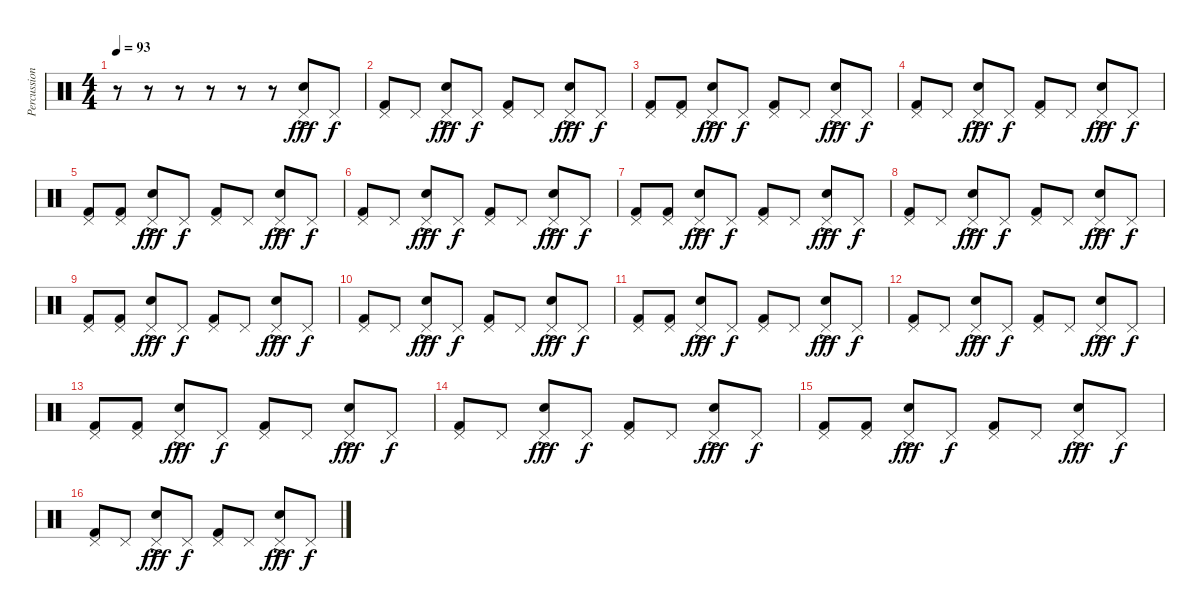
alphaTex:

\track ("Percussion" "Percussion") {instrument percussion}
\staff {score}
\articulation defaults
\ts (4 4)
\tempo 93
\clef neutral
\ks c
r.8{dy fff} r.8 r.8 r.8 r.8 r.8 ("Pedal Hi-Hat (hit)" "Electric Snare (hit)"{ac}).8 "Pedal Hi-Hat (hit)".8{dy f} |
("Pedal Hi-Hat (hit)" "Kick (hit) 2").8 "Pedal Hi-Hat (hit)".8 ("Pedal Hi-Hat (hit)" "Electric Snare (hit)"{ac}).8{dy fff} "Pedal Hi-Hat (hit)".8{dy f} ("Pedal Hi-Hat (hit)" "Kick (hit) 2").8 "Pedal Hi-Hat (hit)".8 ("Pedal Hi-Hat (hit)" "Electric Snare (hit)"{ac}).8{dy fff} "Pedal Hi-Hat (hit)".8{dy f} |
("Pedal Hi-Hat (hit)" "Kick (hit) 2").8 ("Pedal Hi-Hat (hit)" "Kick (hit) 2").8 ("Pedal Hi-Hat (hit)" "Electric Snare (hit)"{ac}).8{dy fff} "Pedal Hi-Hat (hit)".8{dy f} ("Pedal Hi-Hat (hit)" "Kick (hit) 2").8 "Pedal Hi-Hat (hit)".8 ("Pedal Hi-Hat (hit)" "Electric Snare (hit)"{ac}).8{dy fff} "Pedal Hi-Hat (hit)".8{dy f} |
("Pedal Hi-Hat (hit)" "Kick (hit) 2").8 "Pedal Hi-Hat (hit)".8 ("Pedal Hi-Hat (hit)" "Electric Snare (hit)"{ac}).8{dy fff} "Pedal Hi-Hat (hit)".8{dy f} ("Pedal Hi-Hat (hit)" "Kick (hit) 2").8 "Pedal Hi-Hat (hit)".8 ("Pedal Hi-Hat (hit)" "Electric Snare (hit)"{ac}).8{dy fff} "Pedal Hi-Hat (hit)".8{dy f} |
("Pedal Hi-Hat (hit)" "Kick (hit) 2").8 ("Pedal Hi-Hat (hit)" "Kick (hit) 2").8 ("Pedal Hi-Hat (hit)" "Electric Snare (hit)"{ac}).8{dy fff} "Pedal Hi-Hat (hit)".8{dy f} ("Pedal Hi-Hat (hit)" "Kick (hit) 2").8 "Pedal Hi-Hat (hit)".8 ("Pedal Hi-Hat (hit)" "Electric Snare (hit)"{ac}).8{dy fff} "Pedal Hi-Hat (hit)".8{dy f} |
("Pedal Hi-Hat (hit)" "Kick (hit) 2").8 "Pedal Hi-Hat (hit)".8 ("Pedal Hi-Hat (hit)" "Electric Snare (hit)"{ac}).8{dy fff} "Pedal Hi-Hat (hit)".8{dy f} ("Pedal Hi-Hat (hit)" "Kick (hit) 2").8 "Pedal Hi-Hat (hit)".8 ("Pedal Hi-Hat (hit)" "Electric Snare (hit)"{ac}).8{dy fff} "Pedal Hi-Hat (hit)".8{dy f} |
("Pedal Hi-Hat (hit)" "Kick (hit) 2").8 ("Pedal Hi-Hat (hit)" "Kick (hit) 2").8 ("Pedal Hi-Hat (hit)" "Electric Snare (hit)"{ac}).8{dy fff} "Pedal Hi-Hat (hit)".8{dy f} ("Pedal Hi-Hat (hit)" "Kick (hit) 2").8 "Pedal Hi-Hat (hit)".8 ("Pedal Hi-Hat (hit)" "Electric Snare (hit)"{ac}).8{dy fff} "Pedal Hi-Hat (hit)".8{dy f} |
("Pedal Hi-Hat (hit)" "Kick (hit) 2").8 "Pedal Hi-Hat (hit)".8 ("Pedal Hi-Hat (hit)" "Electric Snare (hit)"{ac}).8{dy fff} "Pedal Hi-Hat (hit)".8{dy f} ("Pedal Hi-Hat (hit)" "Kick (hit) 2").8 "Pedal Hi-Hat (hit)".8 ("Pedal Hi-Hat (hit)" "Electric Snare (hit)"{ac}).8{dy fff} "Pedal Hi-Hat (hit)".8{dy f} |
("Pedal Hi-Hat (hit)" "Kick (hit) 2").8 ("Pedal Hi-Hat (hit)" "Kick (hit) 2").8 ("Pedal Hi-Hat (hit)" "Electric Snare (hit)"{ac}).8{dy fff} "Pedal Hi-Hat (hit)".8{dy f} ("Pedal Hi-Hat (hit)" "Kick (hit) 2").8 "Pedal Hi-Hat (hit)".8 ("Pedal Hi-Hat (hit)" "Electric Snare (hit)"{ac}).8{dy fff} "Pedal Hi-Hat (hit)".8{dy f} |
("Pedal Hi-Hat (hit)" "Kick (hit) 2").8 "Pedal Hi-Hat (hit)".8 ("Pedal Hi-Hat (hit)" "Electric Snare (hit)"{ac}).8{dy fff} "Pedal Hi-Hat (hit)".8{dy f} ("Pedal Hi-Hat (hit)" "Kick (hit) 2").8 "Pedal Hi-Hat (hit)".8 ("Pedal Hi-Hat (hit)" "Electric Snare (hit)"{ac}).8{dy fff} "Pedal Hi-Hat (hit)".8{dy f} |
("Pedal Hi-Hat (hit)" "Kick (hit) 2").8 ("Pedal Hi-Hat (hit)" "Kick (hit) 2").8 ("Pedal Hi-Hat (hit)" "Electric Snare (hit)"{ac}).8{dy fff} "Pedal Hi-Hat (hit)".8{dy f} ("Pedal Hi-Hat (hit)" "Kick (hit) 2").8 "Pedal Hi-Hat (hit)".8 ("Pedal Hi-Hat (hit)" "Electric Snare (hit)"{ac}).8{dy fff} "Pedal Hi-Hat (hit)".8{dy f} |
("Pedal Hi-Hat (hit)" "Kick (hit) 2").8 "Pedal Hi-Hat (hit)".8 ("Pedal Hi-Hat (hit)" "Electric Snare (hit)"{ac}).8{dy fff} "Pedal Hi-Hat (hit)".8{dy f} ("Pedal Hi-Hat (hit)" "Kick (hit) 2").8 "Pedal Hi-Hat (hit)".8 ("Pedal Hi-Hat (hit)" "Electric Snare (hit)"{ac}).8{dy fff} "Pedal Hi-Hat (hit)".8{dy f} |
("Pedal Hi-Hat (hit)" "Kick (hit) 2").8 ("Pedal Hi-Hat (hit)" "Kick (hit) 2").8 ("Pedal Hi-Hat (hit)" "Electric Snare (hit)"{ac}).8{dy fff} "Pedal Hi-Hat (hit)".8{dy f} ("Pedal Hi-Hat (hit)" "Kick (hit) 2").8 "Pedal Hi-Hat (hit)".8 ("Pedal Hi-Hat (hit)" "Electric Snare (hit)"{ac}).8{dy fff} "Pedal Hi-Hat (hit)".8{dy f} |
("Pedal Hi-Hat (hit)" "Kick (hit) 2").8 "Pedal Hi-Hat (hit)".8 ("Pedal Hi-Hat (hit)" "Electric Snare (hit)"{ac}).8{dy fff} "Pedal Hi-Hat (hit)".8{dy f} ("Pedal Hi-Hat (hit)" "Kick (hit) 2").8 "Pedal Hi-Hat (hit)".8 ("Pedal Hi-Hat (hit)" "Electric Snare (hit)"{ac}).8{dy fff} "Pedal Hi-Hat (hit)".8{dy f} |
("Pedal Hi-Hat (hit)" "Kick (hit) 2").8 ("Pedal Hi-Hat (hit)" "Kick (hit) 2").8 ("Pedal Hi-Hat (hit)" "Electric Snare (hit)"{ac}).8{dy fff} "Pedal Hi-Hat (hit)".8{dy f} ("Pedal Hi-Hat (hit)" "Kick (hit) 2").8 "Pedal Hi-Hat (hit)".8 ("Pedal Hi-Hat (hit)" "Electric Snare (hit)"{ac}).8{dy fff} "Pedal Hi-Hat (hit)".8{dy f} |
("Pedal Hi-Hat (hit)" "Kick (hit) 2").8 "Pedal Hi-Hat (hit)".8 ("Pedal Hi-Hat (hit)" "Electric Snare (hit)"{ac}).8{dy fff} "Pedal Hi-Hat (hit)".8{dy f} ("Pedal Hi-Hat (hit)" "Kick (hit) 2").8 "Pedal Hi-Hat (hit)".8 ("Pedal Hi-Hat (hit)" "Electric Snare (hit)"{ac}).8{dy fff} "Pedal Hi-Hat (hit)".8{dy f}
